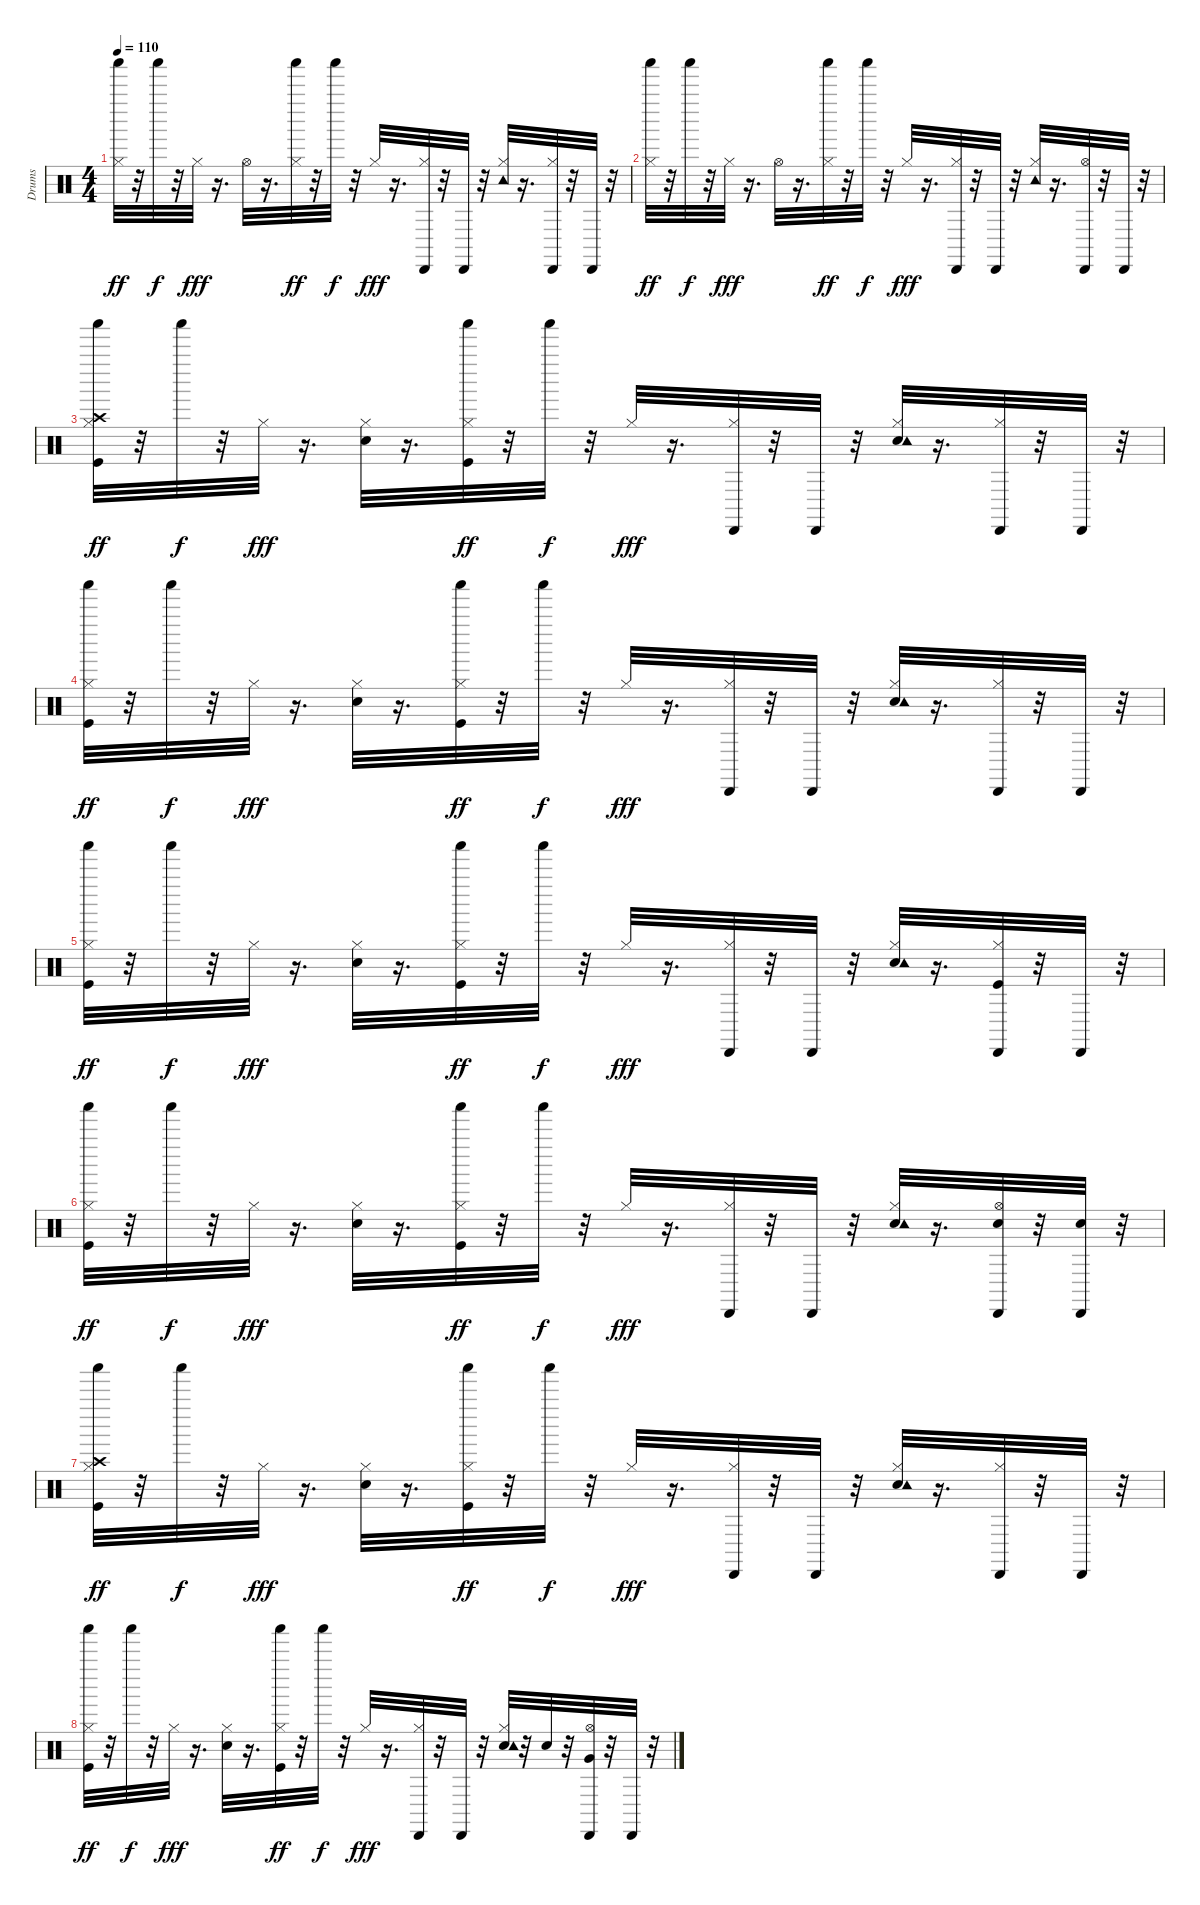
\track ("Drums               " "Drums     ") {instrument percussion}
\staff {score}
\articulation defaults
\ts (4 4)
\tempo 110
\clef neutral
\ks c
("Hi-Hat (closed)" "Shaker (hit)").32{dy ff} r.32 "Shaker (hit)".32{dy f} r.32 "Hi-Hat (closed)".32{dy fff} r.16{d} "Hi-Hat (open)".32 r.16{d} ("Hi-Hat (closed)" "Shaker (hit)").32{dy ff} r.32 "Shaker (hit)".32{dy f} r.32 "Hi-Hat (closed)".32{dy fff} r.16{d} ("Hi-Hat (closed)" "Cabasa (hit)").32 r.32 "Cabasa (hit)".32 r.32 ("Hi-Hat (closed)" "Tambourine (hit)").32 r.16{d} ("Hi-Hat (closed)" "Cabasa (hit)").32 r.32 "Cabasa (hit)".32 r.32 |
("Hi-Hat (closed)" "Shaker (hit)").32{dy ff} r.32 "Shaker (hit)".32{dy f} r.32 "Hi-Hat (closed)".32{dy fff} r.16{d} "Hi-Hat (open)".32 r.16{d} ("Hi-Hat (closed)" "Shaker (hit)").32{dy ff} r.32 "Shaker (hit)".32{dy f} r.32 "Hi-Hat (closed)".32{dy fff} r.16{d} ("Hi-Hat (closed)" "Cabasa (hit)").32 r.32 "Cabasa (hit)".32 r.32 ("Hi-Hat (closed)" "Tambourine (hit)").32 r.16{d} ("Hi-Hat (open)" "Cabasa (hit)").32 r.32 "Cabasa (hit)".32 r.32 |
("Kick (hit)" "Hi-Hat (closed)" "Crash high (hit)" "Shaker (hit)").32{dy ff} r.32 "Shaker (hit)".32{dy f} r.32 "Hi-Hat (closed)".32{dy fff} r.16{d} ("Electric Snare (hit)" "Hi-Hat (closed)").32 r.16{d} ("Kick (hit)" "Hi-Hat (closed)" "Shaker (hit)").32{dy ff} r.32 "Shaker (hit)".32{dy f} r.32 "Hi-Hat (closed)".32{dy fff} r.16{d} ("Hi-Hat (closed)" "Cabasa (hit)").32 r.32 "Cabasa (hit)".32 r.32 ("Electric Snare (hit)" "Hi-Hat (closed)" "Tambourine (hit)").32 r.16{d} ("Hi-Hat (closed)" "Cabasa (hit)").32 r.32 "Cabasa (hit)".32 r.32 |
("Kick (hit)" "Hi-Hat (closed)" "Shaker (hit)").32{dy ff} r.32 "Shaker (hit)".32{dy f} r.32 "Hi-Hat (closed)".32{dy fff} r.16{d} ("Electric Snare (hit)" "Hi-Hat (closed)").32 r.16{d} ("Kick (hit)" "Hi-Hat (closed)" "Shaker (hit)").32{dy ff} r.32 "Shaker (hit)".32{dy f} r.32 "Hi-Hat (closed)".32{dy fff} r.16{d} ("Hi-Hat (closed)" "Cabasa (hit)").32 r.32 "Cabasa (hit)".32 r.32 ("Electric Snare (hit)" "Hi-Hat (closed)" "Tambourine (hit)").32 r.16{d} ("Hi-Hat (closed)" "Cabasa (hit)").32 r.32 "Cabasa (hit)".32 r.32 |
("Kick (hit)" "Hi-Hat (closed)" "Shaker (hit)").32{dy ff} r.32 "Shaker (hit)".32{dy f} r.32 "Hi-Hat (closed)".32{dy fff} r.16{d} ("Electric Snare (hit)" "Hi-Hat (closed)").32 r.16{d} ("Kick (hit)" "Hi-Hat (closed)" "Shaker (hit)").32{dy ff} r.32 "Shaker (hit)".32{dy f} r.32 "Hi-Hat (closed)".32{dy fff} r.16{d} ("Hi-Hat (closed)" "Cabasa (hit)").32 r.32 "Cabasa (hit)".32 r.32 ("Electric Snare (hit)" "Hi-Hat (closed)" "Tambourine (hit)").32 r.16{d} ("Kick (hit)" "Hi-Hat (closed)" "Cabasa (hit)").32 r.32 "Cabasa (hit)".32 r.32 |
("Kick (hit)" "Hi-Hat (closed)" "Shaker (hit)").32{dy ff} r.32 "Shaker (hit)".32{dy f} r.32 "Hi-Hat (closed)".32{dy fff} r.16{d} ("Electric Snare (hit)" "Hi-Hat (closed)").32 r.16{d} ("Kick (hit)" "Hi-Hat (closed)" "Shaker (hit)").32{dy ff} r.32 "Shaker (hit)".32{dy f} r.32 "Hi-Hat (closed)".32{dy fff} r.16{d} ("Hi-Hat (closed)" "Cabasa (hit)").32 r.32 "Cabasa (hit)".32 r.32 ("Electric Snare (hit)" "Hi-Hat (closed)" "Tambourine (hit)").32 r.16{d} ("Electric Snare (hit)" "Hi-Hat (open)" "Cabasa (hit)").32 r.32 ("Electric Snare (hit)" "Cabasa (hit)").32 r.32 |
("Kick (hit)" "Hi-Hat (closed)" "Crash high (hit)" "Shaker (hit)").32{dy ff} r.32 "Shaker (hit)".32{dy f} r.32 "Hi-Hat (closed)".32{dy fff} r.16{d} ("Electric Snare (hit)" "Hi-Hat (closed)").32 r.16{d} ("Kick (hit)" "Hi-Hat (closed)" "Shaker (hit)").32{dy ff} r.32 "Shaker (hit)".32{dy f} r.32 "Hi-Hat (closed)".32{dy fff} r.16{d} ("Hi-Hat (closed)" "Cabasa (hit)").32 r.32 "Cabasa (hit)".32 r.32 ("Electric Snare (hit)" "Hi-Hat (closed)" "Tambourine (hit)").32 r.16{d} ("Hi-Hat (closed)" "Cabasa (hit)").32 r.32 "Cabasa (hit)".32 r.32 |
("Kick (hit)" "Hi-Hat (closed)" "Shaker (hit)").32{dy ff} r.32 "Shaker (hit)".32{dy f} r.32 "Hi-Hat (closed)".32{dy fff} r.16{d} ("Electric Snare (hit)" "Hi-Hat (closed)").32 r.16{d} ("Kick (hit)" "Hi-Hat (closed)" "Shaker (hit)").32{dy ff} r.32 "Shaker (hit)".32{dy f} r.32 "Hi-Hat (closed)".32{dy fff} r.16{d} ("Hi-Hat (closed)" "Cabasa (hit)").32 r.32 "Cabasa (hit)".32 r.32 ("Electric Snare (hit)" "Hi-Hat (closed)" "Tambourine (hit)").32 r.32 "Electric Snare (hit)".32 r.32 ("Very Low Tom (hit)" "Hi-Hat (open)" "Cabasa (hit)").32 r.32 "Cabasa (hit)".32 r.32
